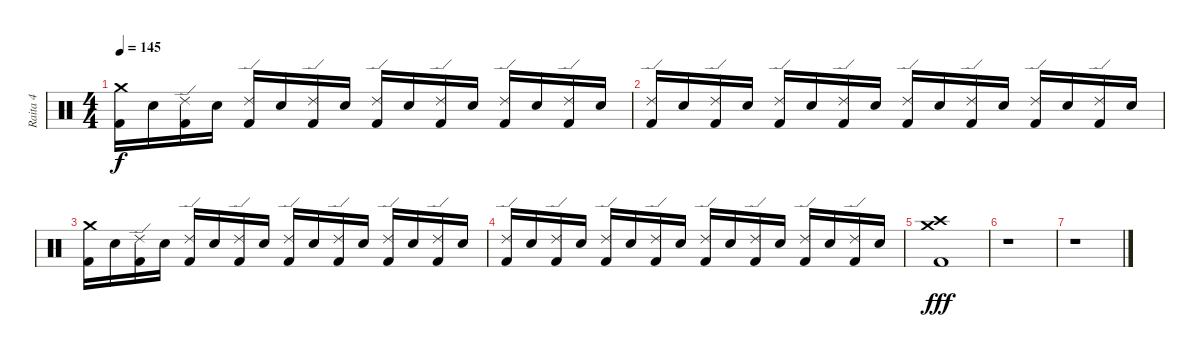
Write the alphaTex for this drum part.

\track ("Raita 4" "Raita 4") {instrument percussion}
\staff {score}
\articulation defaults
\ts (4 4)
\tempo 145
\clef neutral
\ks c
("Crash medium (hit)" "Kick (hit) 2").16{dy f} "Electric Snare (hit)".16 ("Ride (edge) 2" "Kick (hit) 2").16 "Electric Snare (hit)".16 ("Ride (edge) 2" "Kick (hit) 2").16 "Electric Snare (hit)".16 ("Ride (edge) 2" "Kick (hit) 2").16 "Electric Snare (hit)".16 ("Ride (edge) 2" "Kick (hit) 2").16 "Electric Snare (hit)".16 ("Ride (edge) 2" "Kick (hit) 2").16 "Electric Snare (hit)".16 ("Ride (edge) 2" "Kick (hit) 2").16 "Electric Snare (hit)".16 ("Ride (edge) 2" "Kick (hit) 2").16 "Electric Snare (hit)".16 |
("Ride (edge) 2" "Kick (hit) 2").16 "Electric Snare (hit)".16 ("Ride (edge) 2" "Kick (hit) 2").16 "Electric Snare (hit)".16 ("Ride (edge) 2" "Kick (hit) 2").16 "Electric Snare (hit)".16 ("Ride (edge) 2" "Kick (hit) 2").16 "Electric Snare (hit)".16 ("Ride (edge) 2" "Kick (hit) 2").16 "Electric Snare (hit)".16 ("Ride (edge) 2" "Kick (hit) 2").16 "Electric Snare (hit)".16 ("Ride (edge) 2" "Kick (hit) 2").16 "Electric Snare (hit)".16 ("Ride (edge) 2" "Kick (hit) 2").16 "Electric Snare (hit)".16 |
("Crash medium (hit)" "Kick (hit) 2").16 "Electric Snare (hit)".16 ("Ride (edge) 2" "Kick (hit) 2").16 "Electric Snare (hit)".16 ("Ride (edge) 2" "Kick (hit) 2").16 "Electric Snare (hit)".16 ("Ride (edge) 2" "Kick (hit) 2").16 "Electric Snare (hit)".16 ("Ride (edge) 2" "Kick (hit) 2").16 "Electric Snare (hit)".16 ("Ride (edge) 2" "Kick (hit) 2").16 "Electric Snare (hit)".16 ("Ride (edge) 2" "Kick (hit) 2").16 "Electric Snare (hit)".16 ("Ride (edge) 2" "Kick (hit) 2").16 "Electric Snare (hit)".16 |
("Ride (edge) 2" "Kick (hit) 2").16 "Electric Snare (hit)".16 ("Ride (edge) 2" "Kick (hit) 2").16 "Electric Snare (hit)".16 ("Ride (edge) 2" "Kick (hit) 2").16 "Electric Snare (hit)".16 ("Ride (edge) 2" "Kick (hit) 2").16 "Electric Snare (hit)".16 ("Ride (edge) 2" "Kick (hit) 2").16 "Electric Snare (hit)".16 ("Ride (edge) 2" "Kick (hit) 2").16 "Electric Snare (hit)".16 ("Ride (edge) 2" "Kick (hit) 2").16 "Electric Snare (hit)".16 ("Ride (edge) 2" "Kick (hit) 2").16 "Electric Snare (hit)".16 |
("Crash high (hit)" "Crash medium (hit)" "Kick (hit) 2").1{dy fff} |
r.1 |
r.1
